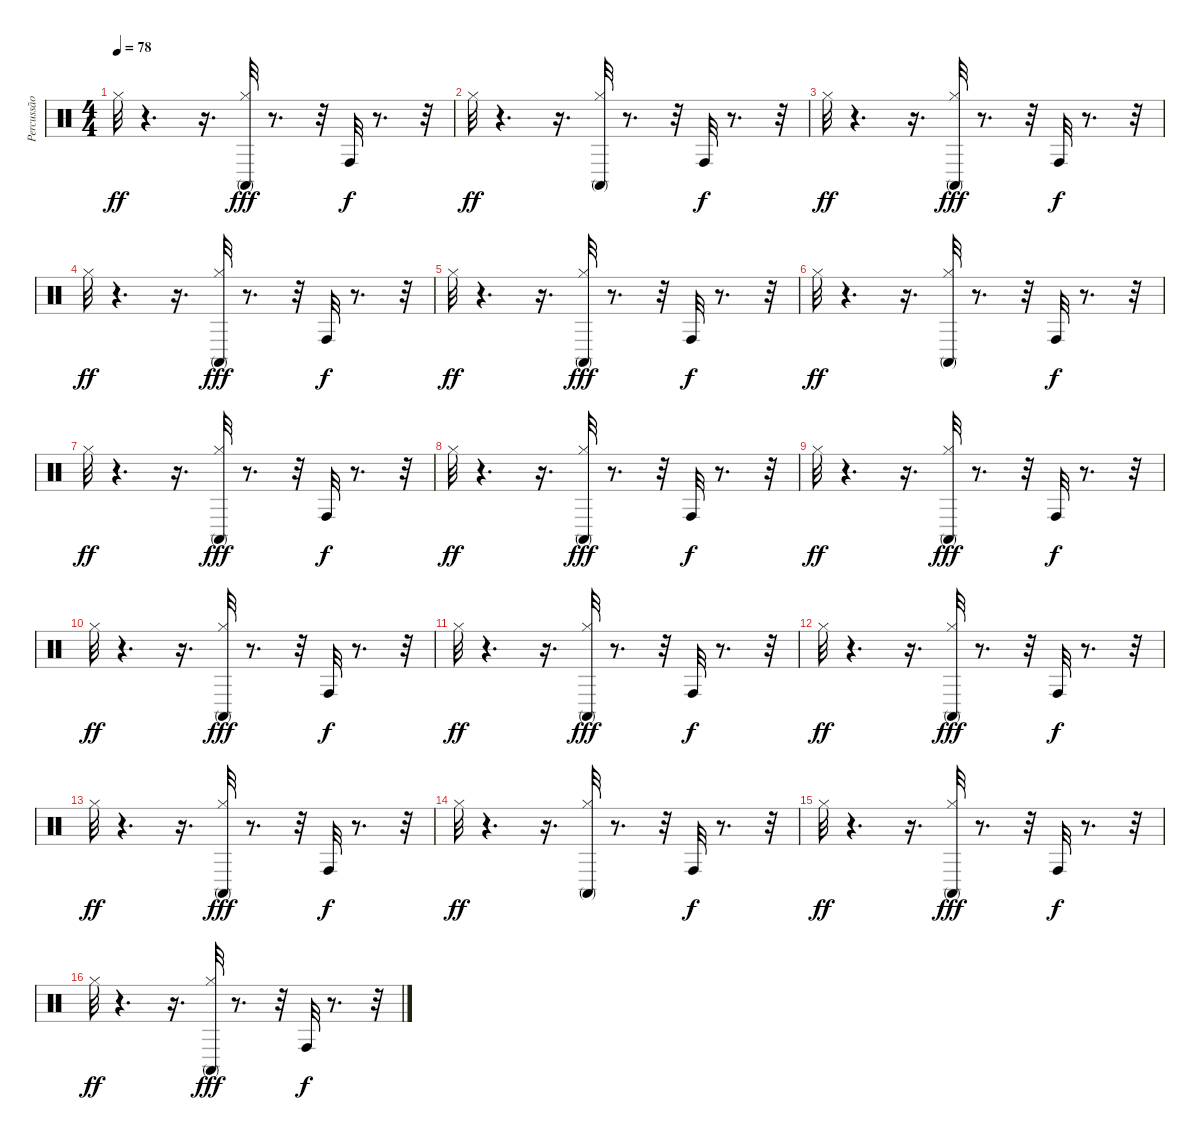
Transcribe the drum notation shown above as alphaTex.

\track ("Percussão" "Percussão") {instrument percussion}
\staff {score}
\articulation defaults
\ts (4 4)
\tempo 78
\clef neutral
\ks c "Hi-Hat (closed)".32{dy ff}
r.4{d} r.16{d} ("Hi-Hat (closed)" "Conga high (mute)").32{dy fff} r.8{d} r.32 "Conga high (hit)".32{dy f} r.8{d} r.32 |
"Hi-Hat (closed)".32{dy ff} r.4{d} r.16{d} ("Conga high (mute)" "Hi-Hat (closed)").32 r.8{d} r.32 "Conga high (hit)".32{dy f} r.8{d} r.32 |
"Hi-Hat (closed)".32{dy ff} r.4{d} r.16{d} ("Hi-Hat (closed)" "Conga high (mute)").32{dy fff} r.8{d} r.32 "Conga high (hit)".32{dy f} r.8{d} r.32 |
"Hi-Hat (closed)".32{dy ff} r.4{d} r.16{d} ("Hi-Hat (closed)" "Conga high (mute)").32{dy fff} r.8{d} r.32 "Conga high (hit)".32{dy f} r.8{d} r.32 |
"Hi-Hat (closed)".32{dy ff} r.4{d} r.16{d} ("Hi-Hat (closed)" "Conga high (mute)").32{dy fff} r.8{d} r.32 "Conga high (hit)".32{dy f} r.8{d} r.32 |
"Hi-Hat (closed)".32{dy ff} r.4{d} r.16{d} ("Conga high (mute)" "Hi-Hat (closed)").32 r.8{d} r.32 "Conga high (hit)".32{dy f} r.8{d} r.32 |
"Hi-Hat (closed)".32{dy ff} r.4{d} r.16{d} ("Hi-Hat (closed)" "Conga high (mute)").32{dy fff} r.8{d} r.32 "Conga high (hit)".32{dy f} r.8{d} r.32 |
"Hi-Hat (closed)".32{dy ff} r.4{d} r.16{d} ("Hi-Hat (closed)" "Conga high (mute)").32{dy fff} r.8{d} r.32 "Conga high (hit)".32{dy f} r.8{d} r.32 |
"Hi-Hat (closed)".32{dy ff} r.4{d} r.16{d} ("Hi-Hat (closed)" "Conga high (mute)").32{dy fff} r.8{d} r.32 "Conga high (hit)".32{dy f} r.8{d} r.32 |
"Hi-Hat (closed)".32{dy ff} r.4{d} r.16{d} ("Hi-Hat (closed)" "Conga high (mute)").32{dy fff} r.8{d} r.32 "Conga high (hit)".32{dy f} r.8{d} r.32 |
"Hi-Hat (closed)".32{dy ff} r.4{d} r.16{d} ("Hi-Hat (closed)" "Conga high (mute)").32{dy fff} r.8{d} r.32 "Conga high (hit)".32{dy f} r.8{d} r.32 |
"Hi-Hat (closed)".32{dy ff} r.4{d} r.16{d} ("Hi-Hat (closed)" "Conga high (mute)").32{dy fff} r.8{d} r.32 "Conga high (hit)".32{dy f} r.8{d} r.32 |
"Hi-Hat (closed)".32{dy ff} r.4{d} r.16{d} ("Hi-Hat (closed)" "Conga high (mute)").32{dy fff} r.8{d} r.32 "Conga high (hit)".32{dy f} r.8{d} r.32 |
"Hi-Hat (closed)".32{dy ff} r.4{d} r.16{d} ("Conga high (mute)" "Hi-Hat (closed)").32 r.8{d} r.32 "Conga high (hit)".32{dy f} r.8{d} r.32 |
"Hi-Hat (closed)".32{dy ff} r.4{d} r.16{d} ("Hi-Hat (closed)" "Conga high (mute)").32{dy fff} r.8{d} r.32 "Conga high (hit)".32{dy f} r.8{d} r.32 |
"Hi-Hat (closed)".32{dy ff} r.4{d} r.16{d} ("Hi-Hat (closed)" "Conga high (mute)").32{dy fff} r.8{d} r.32 "Conga high (hit)".32{dy f} r.8{d} r.32
